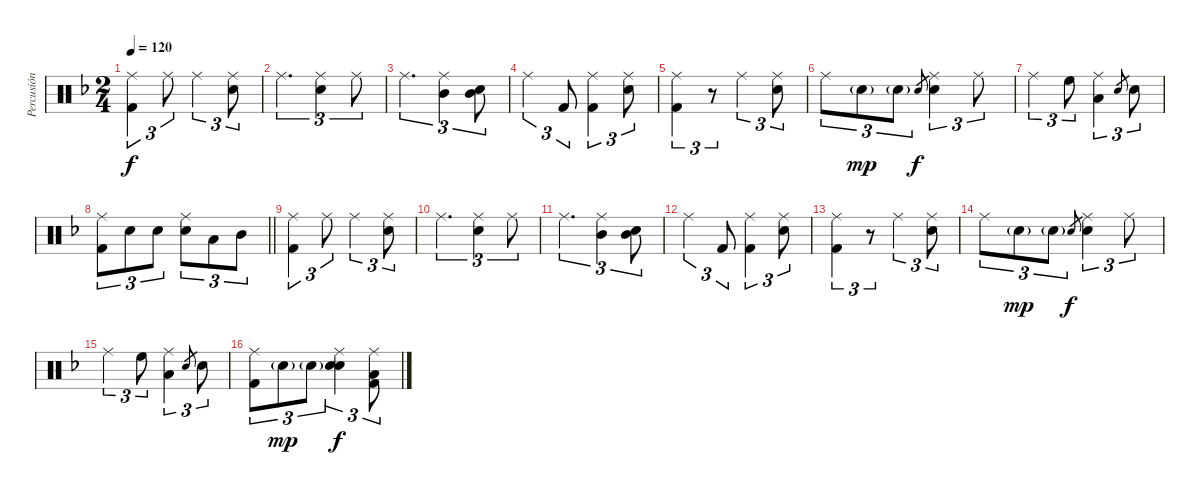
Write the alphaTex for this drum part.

\track ("Percusión" "Percusión") {instrument percussion}
\staff {score}
\articulation defaults
\ts (2 4)
\tempo 120
\clef neutral
\ks dminor
("Ride (middle)" "Kick (hit) 2").4{tu (3 2) dy f} "Ride (middle)".8{tu (3 2)} "Ride (middle)".4{tu (3 2)} ("Ride (middle)" "Snare (hit) 2").8{tu (3 2)} |
"Ride (middle)".4{d tu (3 2)} ("Ride (middle)" "Snare (hit) 2").4{tu (3 2)} "Ride (middle)".8{tu (3 2)} |
"Ride (middle)".4{d tu (3 2)} ("Ride (middle)" "Mid Tom (hit)").4{tu (3 2)} ("Mid Tom (hit)" "Snare (hit) 2").8{tu (3 2)} |
"Ride (middle)".4{tu (3 2)} "Kick (hit) 2".8{tu (3 2)} ("Ride (middle)" "Kick (hit) 2").4{tu (3 2)} ("Ride (middle)" "Snare (hit) 2").8{tu (3 2)} |
("Ride (middle)" "Kick (hit) 2").4{tu (3 2)} r.8{tu (3 2)} "Ride (middle)".4{tu (3 2)} ("Ride (middle)" "Snare (hit) 2").8{tu (3 2)} |
"Ride (middle)".8{tu (3 2)} "Snare (hit) 2"{g}.8{tu (3 2) dy mp} "Snare (hit) 2"{g}.8{tu (3 2)} "Snare (hit) 2".8{gr dy f} ("Ride (middle)" "Snare (hit) 2").4{tu (3 2)} "Ride (middle)".8{tu (3 2)} |
"Ride (middle)".4{tu (3 2)} "High Floor Tom (hit)".8{tu (3 2)} ("Ride (middle)" "Low Tom (hit)").4{tu (3 2)} "Snare (hit) 2".8{gr} "Snare (hit) 2".8{tu (3 2)} |
\barLineRight lightlight
("Ride (middle)" "Kick (hit) 2").8{tu (3 2)} "Snare (hit) 2".8{tu (3 2)} "Snare (hit) 2".8{tu (3 2)} ("Ride (middle)" "Snare (hit) 2").8{tu (3 2)} "Low Tom (hit)".8{tu (3 2)} "Mid Tom (hit)".8{tu (3 2)} |
("Ride (middle)" "Kick (hit) 2").4{tu (3 2)} "Ride (middle)".8{tu (3 2)} "Ride (middle)".4{tu (3 2)} ("Ride (middle)" "Snare (hit) 2").8{tu (3 2)} |
"Ride (middle)".4{d tu (3 2)} ("Ride (middle)" "Snare (hit) 2").4{tu (3 2)} "Ride (middle)".8{tu (3 2)} |
"Ride (middle)".4{d tu (3 2)} ("Ride (middle)" "Mid Tom (hit)").4{tu (3 2)} ("Mid Tom (hit)" "Snare (hit) 2").8{tu (3 2)} |
"Ride (middle)".4{tu (3 2)} "Kick (hit) 2".8{tu (3 2)} ("Ride (middle)" "Kick (hit) 2").4{tu (3 2)} ("Ride (middle)" "Snare (hit) 2").8{tu (3 2)} |
("Ride (middle)" "Kick (hit) 2").4{tu (3 2)} r.8{tu (3 2)} "Ride (middle)".4{tu (3 2)} ("Ride (middle)" "Snare (hit) 2").8{tu (3 2)} |
"Ride (middle)".8{tu (3 2)} "Snare (hit) 2"{g}.8{tu (3 2) dy mp} "Snare (hit) 2"{g}.8{tu (3 2)} "Snare (hit) 2".8{gr dy f} ("Ride (middle)" "Snare (hit) 2").4{tu (3 2)} "Ride (middle)".8{tu (3 2)} |
"Ride (middle)".4{tu (3 2)} "High Floor Tom (hit)".8{tu (3 2)} ("Ride (middle)" "Low Tom (hit)").4{tu (3 2)} "Snare (hit) 2".8{gr} "Snare (hit) 2".8{tu (3 2)} |
("Ride (middle)" "Kick (hit) 2").8{tu (3 2)} "Snare (hit) 2"{g}.8{tu (3 2) dy mp} "Snare (hit) 2"{g}.8{tu (3 2)} ("Ride (middle)" "Snare (hit) 2" "Electric Snare (hit)").4{tu (3 2) dy f} ("Ride (middle)" "Low Tom (hit)" "Kick (hit) 2").8{tu (3 2)}
